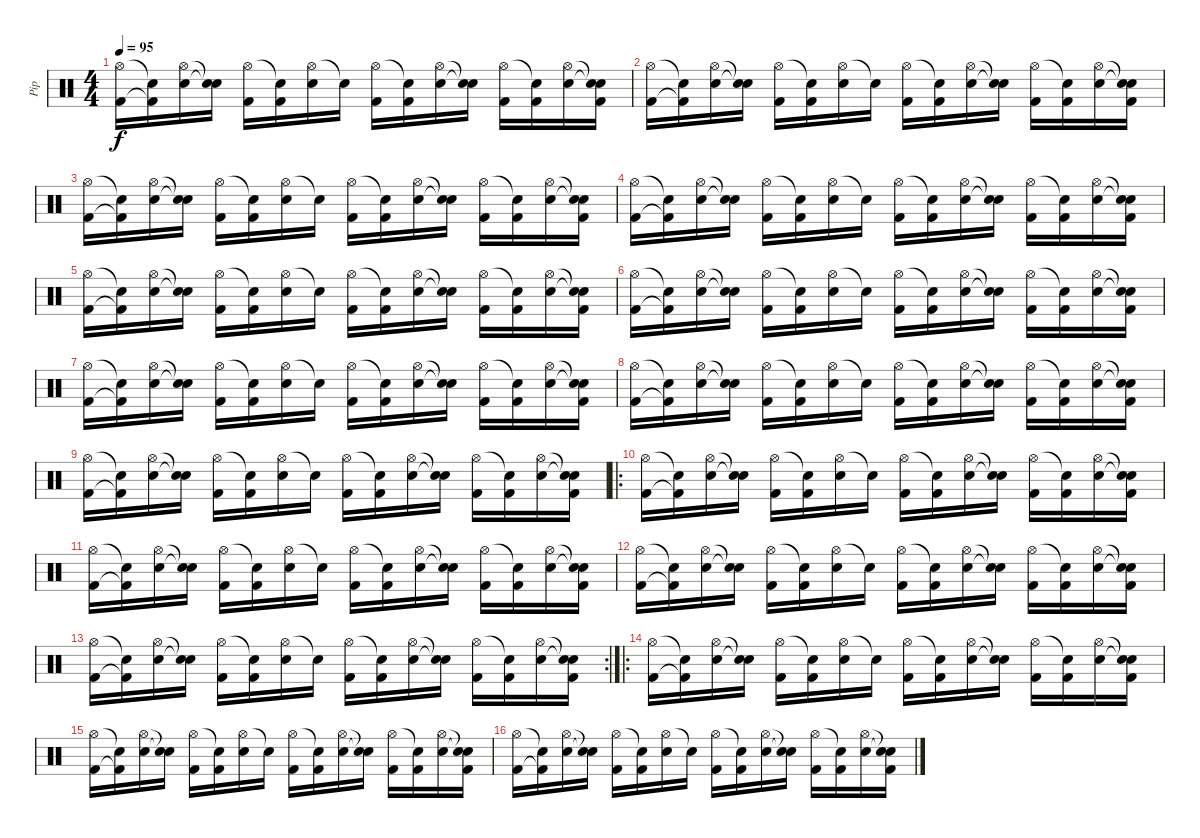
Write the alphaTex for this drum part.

\track ("Pip" "Pip") {instrument percussion}
\staff {score}
\articulation defaults
\ts (4 4)
\tempo 95
\clef neutral
\ks c
("Hi-Hat (open)" "Kick (hit) 2").16{dy f} ("Snare (hit)"{t} "Kick (hit) 2"{t}).16 ("Hi-Hat (open)" "Electric Snare (hit)").16 ("Snare (hit)"{t} "Snare (hit)"{t}).16 ("Hi-Hat (open)" "Kick (hit) 2").16 ("Snare (hit)"{t} "Kick (hit) 2").16 ("Hi-Hat (open)" "Electric Snare (hit)").16 "Snare (hit)"{t}.16 ("Hi-Hat (open)" "Kick (hit) 2").16 ("Snare (hit)"{t} "Kick (hit) 2").16 ("Hi-Hat (open)" "Electric Snare (hit)").16 ("Snare (hit)"{t} "Snare (hit)"{t}).16 ("Hi-Hat (open)" "Kick (hit) 2").16 ("Snare (hit)"{t} "Kick (hit) 2").16 ("Hi-Hat (open)" "Electric Snare (hit)").16 ("Snare (hit)"{t} "Snare (hit)"{t} "Kick (hit) 2").16 |
("Hi-Hat (open)" "Kick (hit) 2").16 ("Snare (hit)"{t} "Kick (hit) 2"{t}).16 ("Hi-Hat (open)" "Electric Snare (hit)").16 ("Snare (hit)"{t} "Snare (hit)"{t}).16 ("Hi-Hat (open)" "Kick (hit) 2").16 ("Snare (hit)"{t} "Kick (hit) 2").16 ("Hi-Hat (open)" "Electric Snare (hit)").16 "Snare (hit)"{t}.16 ("Hi-Hat (open)" "Kick (hit) 2").16 ("Snare (hit)"{t} "Kick (hit) 2").16 ("Hi-Hat (open)" "Electric Snare (hit)").16 ("Snare (hit)"{t} "Snare (hit)"{t}).16 ("Hi-Hat (open)" "Kick (hit) 2").16 ("Snare (hit)"{t} "Kick (hit) 2").16 ("Hi-Hat (open)" "Electric Snare (hit)").16 ("Snare (hit)"{t} "Snare (hit)"{t} "Kick (hit) 2").16 |
("Hi-Hat (open)" "Kick (hit) 2").16 ("Snare (hit)"{t} "Kick (hit) 2"{t}).16 ("Hi-Hat (open)" "Electric Snare (hit)").16 ("Snare (hit)"{t} "Snare (hit)"{t}).16 ("Hi-Hat (open)" "Kick (hit) 2").16 ("Snare (hit)"{t} "Kick (hit) 2").16 ("Hi-Hat (open)" "Electric Snare (hit)").16 "Snare (hit)"{t}.16 ("Hi-Hat (open)" "Kick (hit) 2").16 ("Snare (hit)"{t} "Kick (hit) 2").16 ("Hi-Hat (open)" "Electric Snare (hit)").16 ("Snare (hit)"{t} "Snare (hit)"{t}).16 ("Hi-Hat (open)" "Kick (hit) 2").16 ("Snare (hit)"{t} "Kick (hit) 2").16 ("Hi-Hat (open)" "Electric Snare (hit)").16 ("Snare (hit)"{t} "Snare (hit)"{t} "Kick (hit) 2").16 |
("Hi-Hat (open)" "Kick (hit) 2").16 ("Snare (hit)"{t} "Kick (hit) 2"{t}).16 ("Hi-Hat (open)" "Electric Snare (hit)").16 ("Snare (hit)"{t} "Snare (hit)"{t}).16 ("Hi-Hat (open)" "Kick (hit) 2").16 ("Snare (hit)"{t} "Kick (hit) 2").16 ("Hi-Hat (open)" "Electric Snare (hit)").16 "Snare (hit)"{t}.16 ("Hi-Hat (open)" "Kick (hit) 2").16 ("Snare (hit)"{t} "Kick (hit) 2").16 ("Hi-Hat (open)" "Electric Snare (hit)").16 ("Snare (hit)"{t} "Snare (hit)"{t}).16 ("Hi-Hat (open)" "Kick (hit) 2").16 ("Snare (hit)"{t} "Kick (hit) 2").16 ("Hi-Hat (open)" "Electric Snare (hit)").16 ("Snare (hit)"{t} "Snare (hit)"{t} "Kick (hit) 2").16 |
("Hi-Hat (open)" "Kick (hit) 2").16 ("Snare (hit)"{t} "Kick (hit) 2"{t}).16 ("Hi-Hat (open)" "Electric Snare (hit)").16 ("Snare (hit)"{t} "Snare (hit)"{t}).16 ("Hi-Hat (open)" "Kick (hit) 2").16 ("Snare (hit)"{t} "Kick (hit) 2").16 ("Hi-Hat (open)" "Electric Snare (hit)").16 "Snare (hit)"{t}.16 ("Hi-Hat (open)" "Kick (hit) 2").16 ("Snare (hit)"{t} "Kick (hit) 2").16 ("Hi-Hat (open)" "Electric Snare (hit)").16 ("Snare (hit)"{t} "Snare (hit)"{t}).16 ("Hi-Hat (open)" "Kick (hit) 2").16 ("Snare (hit)"{t} "Kick (hit) 2").16 ("Hi-Hat (open)" "Electric Snare (hit)").16 ("Snare (hit)"{t} "Snare (hit)"{t} "Kick (hit) 2").16 |
("Hi-Hat (open)" "Kick (hit) 2").16 ("Snare (hit)"{t} "Kick (hit) 2"{t}).16 ("Hi-Hat (open)" "Electric Snare (hit)").16 ("Snare (hit)"{t} "Snare (hit)"{t}).16 ("Hi-Hat (open)" "Kick (hit) 2").16 ("Snare (hit)"{t} "Kick (hit) 2").16 ("Hi-Hat (open)" "Electric Snare (hit)").16 "Snare (hit)"{t}.16 ("Hi-Hat (open)" "Kick (hit) 2").16 ("Snare (hit)"{t} "Kick (hit) 2").16 ("Hi-Hat (open)" "Electric Snare (hit)").16 ("Snare (hit)"{t} "Snare (hit)"{t}).16 ("Hi-Hat (open)" "Kick (hit) 2").16 ("Snare (hit)"{t} "Kick (hit) 2").16 ("Hi-Hat (open)" "Electric Snare (hit)").16 ("Snare (hit)"{t} "Snare (hit)"{t} "Kick (hit) 2").16 |
("Hi-Hat (open)" "Kick (hit) 2").16 ("Snare (hit)"{t} "Kick (hit) 2"{t}).16 ("Hi-Hat (open)" "Electric Snare (hit)").16 ("Snare (hit)"{t} "Snare (hit)"{t}).16 ("Hi-Hat (open)" "Kick (hit) 2").16 ("Snare (hit)"{t} "Kick (hit) 2").16 ("Hi-Hat (open)" "Electric Snare (hit)").16 "Snare (hit)"{t}.16 ("Hi-Hat (open)" "Kick (hit) 2").16 ("Snare (hit)"{t} "Kick (hit) 2").16 ("Hi-Hat (open)" "Electric Snare (hit)").16 ("Snare (hit)"{t} "Snare (hit)"{t}).16 ("Hi-Hat (open)" "Kick (hit) 2").16 ("Snare (hit)"{t} "Kick (hit) 2").16 ("Hi-Hat (open)" "Electric Snare (hit)").16 ("Snare (hit)"{t} "Snare (hit)"{t} "Kick (hit) 2").16 |
("Hi-Hat (open)" "Kick (hit) 2").16 ("Snare (hit)"{t} "Kick (hit) 2"{t}).16 ("Hi-Hat (open)" "Electric Snare (hit)").16 ("Snare (hit)"{t} "Snare (hit)"{t}).16 ("Hi-Hat (open)" "Kick (hit) 2").16 ("Snare (hit)"{t} "Kick (hit) 2").16 ("Hi-Hat (open)" "Electric Snare (hit)").16 "Snare (hit)"{t}.16 ("Hi-Hat (open)" "Kick (hit) 2").16 ("Snare (hit)"{t} "Kick (hit) 2").16 ("Hi-Hat (open)" "Electric Snare (hit)").16 ("Snare (hit)"{t} "Snare (hit)"{t}).16 ("Hi-Hat (open)" "Kick (hit) 2").16 ("Snare (hit)"{t} "Kick (hit) 2").16 ("Hi-Hat (open)" "Electric Snare (hit)").16 ("Snare (hit)"{t} "Snare (hit)"{t} "Kick (hit) 2").16 |
("Hi-Hat (open)" "Kick (hit) 2").16 ("Snare (hit)"{t} "Kick (hit) 2"{t}).16 ("Hi-Hat (open)" "Electric Snare (hit)").16 ("Snare (hit)"{t} "Snare (hit)"{t}).16 ("Hi-Hat (open)" "Kick (hit) 2").16 ("Snare (hit)"{t} "Kick (hit) 2").16 ("Hi-Hat (open)" "Electric Snare (hit)").16 "Snare (hit)"{t}.16 ("Hi-Hat (open)" "Kick (hit) 2").16 ("Snare (hit)"{t} "Kick (hit) 2").16 ("Hi-Hat (open)" "Electric Snare (hit)").16 ("Snare (hit)"{t} "Snare (hit)"{t}).16 ("Hi-Hat (open)" "Kick (hit) 2").16 ("Snare (hit)"{t} "Kick (hit) 2").16 ("Hi-Hat (open)" "Electric Snare (hit)").16 ("Snare (hit)"{t} "Snare (hit)"{t} "Kick (hit) 2").16 |
\ro
("Hi-Hat (open)" "Kick (hit) 2").16 ("Snare (hit)"{t} "Kick (hit) 2"{t}).16 ("Hi-Hat (open)" "Electric Snare (hit)").16 ("Snare (hit)"{t} "Snare (hit)"{t}).16 ("Hi-Hat (open)" "Kick (hit) 2").16 ("Snare (hit)"{t} "Kick (hit) 2").16 ("Hi-Hat (open)" "Electric Snare (hit)").16 "Snare (hit)"{t}.16 ("Hi-Hat (open)" "Kick (hit) 2").16 ("Snare (hit)"{t} "Kick (hit) 2").16 ("Hi-Hat (open)" "Electric Snare (hit)").16 ("Snare (hit)"{t} "Snare (hit)"{t}).16 ("Hi-Hat (open)" "Kick (hit) 2").16 ("Snare (hit)"{t} "Kick (hit) 2").16 ("Hi-Hat (open)" "Electric Snare (hit)").16 ("Snare (hit)"{t} "Snare (hit)"{t} "Kick (hit) 2").16 |
("Hi-Hat (open)" "Kick (hit) 2").16 ("Snare (hit)"{t} "Kick (hit) 2"{t}).16 ("Hi-Hat (open)" "Electric Snare (hit)").16 ("Snare (hit)"{t} "Snare (hit)"{t}).16 ("Hi-Hat (open)" "Kick (hit) 2").16 ("Snare (hit)"{t} "Kick (hit) 2").16 ("Hi-Hat (open)" "Electric Snare (hit)").16 "Snare (hit)"{t}.16 ("Hi-Hat (open)" "Kick (hit) 2").16 ("Snare (hit)"{t} "Kick (hit) 2").16 ("Hi-Hat (open)" "Electric Snare (hit)").16 ("Snare (hit)"{t} "Snare (hit)"{t}).16 ("Hi-Hat (open)" "Kick (hit) 2").16 ("Snare (hit)"{t} "Kick (hit) 2").16 ("Hi-Hat (open)" "Electric Snare (hit)").16 ("Snare (hit)"{t} "Snare (hit)"{t} "Kick (hit) 2").16 |
("Hi-Hat (open)" "Kick (hit) 2").16 ("Snare (hit)"{t} "Kick (hit) 2"{t}).16 ("Hi-Hat (open)" "Electric Snare (hit)").16 ("Snare (hit)"{t} "Snare (hit)"{t}).16 ("Hi-Hat (open)" "Kick (hit) 2").16 ("Snare (hit)"{t} "Kick (hit) 2").16 ("Hi-Hat (open)" "Electric Snare (hit)").16 "Snare (hit)"{t}.16 ("Hi-Hat (open)" "Kick (hit) 2").16 ("Snare (hit)"{t} "Kick (hit) 2").16 ("Hi-Hat (open)" "Electric Snare (hit)").16 ("Snare (hit)"{t} "Snare (hit)"{t}).16 ("Hi-Hat (open)" "Kick (hit) 2").16 ("Snare (hit)"{t} "Kick (hit) 2").16 ("Hi-Hat (open)" "Electric Snare (hit)").16 ("Snare (hit)"{t} "Snare (hit)"{t} "Kick (hit) 2").16 |
\rc 2
("Hi-Hat (open)" "Kick (hit) 2").16 ("Snare (hit)"{t} "Kick (hit) 2"{t}).16 ("Hi-Hat (open)" "Electric Snare (hit)").16 ("Snare (hit)"{t} "Snare (hit)"{t}).16 ("Hi-Hat (open)" "Kick (hit) 2").16 ("Snare (hit)"{t} "Kick (hit) 2").16 ("Hi-Hat (open)" "Electric Snare (hit)").16 "Snare (hit)"{t}.16 ("Hi-Hat (open)" "Kick (hit) 2").16 ("Snare (hit)"{t} "Kick (hit) 2").16 ("Hi-Hat (open)" "Electric Snare (hit)").16 ("Snare (hit)"{t} "Snare (hit)"{t}).16 ("Hi-Hat (open)" "Kick (hit) 2").16 ("Snare (hit)"{t} "Kick (hit) 2").16 ("Hi-Hat (open)" "Electric Snare (hit)").16 ("Snare (hit)"{t} "Snare (hit)"{t} "Kick (hit) 2").16 |
\ro
("Hi-Hat (open)" "Kick (hit) 2").16 ("Snare (hit)"{t} "Kick (hit) 2"{t}).16 ("Hi-Hat (open)" "Electric Snare (hit)").16 ("Snare (hit)"{t} "Snare (hit)"{t}).16 ("Hi-Hat (open)" "Kick (hit) 2").16 ("Snare (hit)"{t} "Kick (hit) 2").16 ("Hi-Hat (open)" "Electric Snare (hit)").16 "Snare (hit)"{t}.16 ("Hi-Hat (open)" "Kick (hit) 2").16 ("Snare (hit)"{t} "Kick (hit) 2").16 ("Hi-Hat (open)" "Electric Snare (hit)").16 ("Snare (hit)"{t} "Snare (hit)"{t}).16 ("Hi-Hat (open)" "Kick (hit) 2").16 ("Snare (hit)"{t} "Kick (hit) 2").16 ("Hi-Hat (open)" "Electric Snare (hit)").16 ("Snare (hit)"{t} "Snare (hit)"{t} "Kick (hit) 2").16 |
("Hi-Hat (open)" "Kick (hit) 2").16 ("Snare (hit)"{t} "Kick (hit) 2"{t}).16 ("Hi-Hat (open)" "Electric Snare (hit)").16 ("Snare (hit)"{t} "Snare (hit)"{t}).16 ("Hi-Hat (open)" "Kick (hit) 2").16 ("Snare (hit)"{t} "Kick (hit) 2").16 ("Hi-Hat (open)" "Electric Snare (hit)").16 "Snare (hit)"{t}.16 ("Hi-Hat (open)" "Kick (hit) 2").16 ("Snare (hit)"{t} "Kick (hit) 2").16 ("Hi-Hat (open)" "Electric Snare (hit)").16 ("Snare (hit)"{t} "Snare (hit)"{t}).16 ("Hi-Hat (open)" "Kick (hit) 2").16 ("Snare (hit)"{t} "Kick (hit) 2").16 ("Hi-Hat (open)" "Electric Snare (hit)").16 ("Snare (hit)"{t} "Snare (hit)"{t} "Kick (hit) 2").16 |
("Hi-Hat (open)" "Kick (hit) 2").16 ("Snare (hit)"{t} "Kick (hit) 2"{t}).16 ("Hi-Hat (open)" "Electric Snare (hit)").16 ("Snare (hit)"{t} "Snare (hit)"{t}).16 ("Hi-Hat (open)" "Kick (hit) 2").16 ("Snare (hit)"{t} "Kick (hit) 2").16 ("Hi-Hat (open)" "Electric Snare (hit)").16 "Snare (hit)"{t}.16 ("Hi-Hat (open)" "Kick (hit) 2").16 ("Snare (hit)"{t} "Kick (hit) 2").16 ("Hi-Hat (open)" "Electric Snare (hit)").16 ("Snare (hit)"{t} "Snare (hit)"{t}).16 ("Hi-Hat (open)" "Kick (hit) 2").16 ("Snare (hit)"{t} "Kick (hit) 2").16 ("Hi-Hat (open)" "Electric Snare (hit)").16 ("Snare (hit)"{t} "Snare (hit)"{t} "Kick (hit) 2").16
